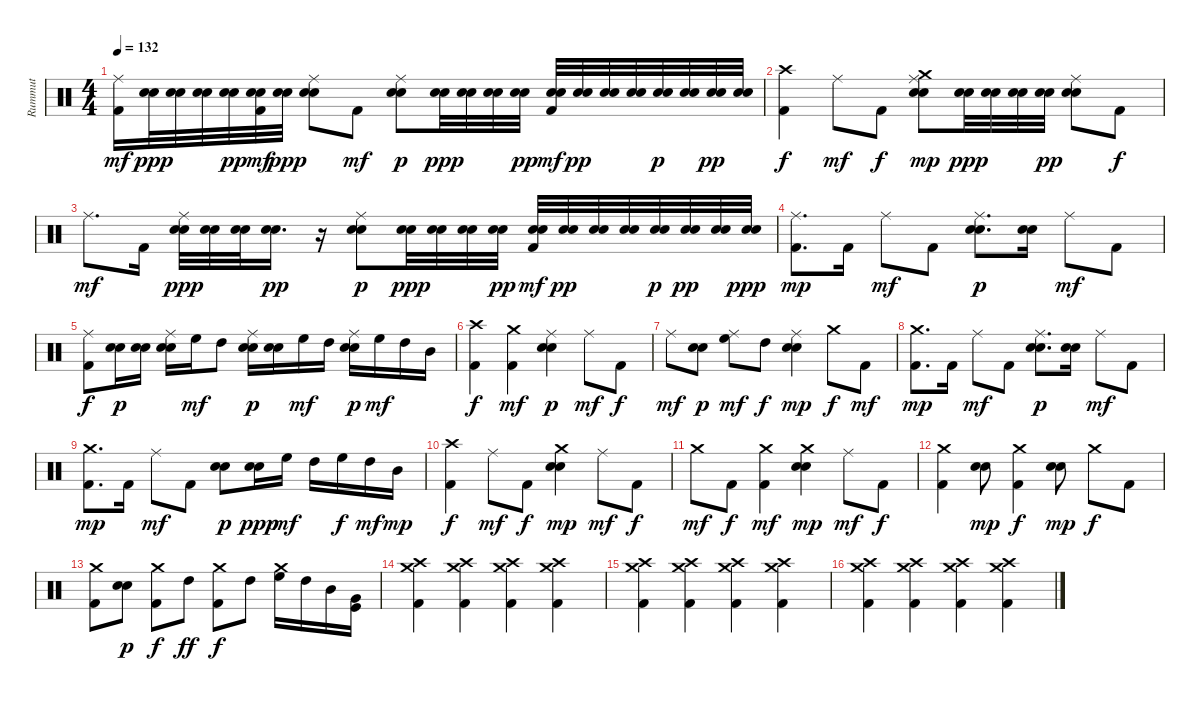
\track ("Rummut" "Rummut") {instrument percussion}
\staff {score}
\articulation defaults
\ts (4 4)
\tempo 132
\clef neutral
\ks c
("Ride (middle)" "Kick (hit) 2").16{dy mf} ("Electric Snare (hit)" "Snare (hit) 2").32{dy ppp} ("Electric Snare (hit)" "Snare (hit) 2").32 ("Electric Snare (hit)" "Snare (hit) 2").32 ("Electric Snare (hit)" "Snare (hit) 2").32{dy pp} ("Electric Snare (hit)" "Snare (hit) 2" "Kick (hit) 2").32{dy mf} ("Electric Snare (hit)" "Snare (hit) 2").32{dy ppp} ("Ride (middle)" "Electric Snare (hit)" "Snare (hit) 2").8 "Kick (hit) 2".8{dy mf} ("Ride (middle)" "Electric Snare (hit)" "Snare (hit) 2").8{dy p} ("Electric Snare (hit)" "Snare (hit) 2").32{dy ppp} ("Electric Snare (hit)" "Snare (hit) 2").32 ("Electric Snare (hit)" "Snare (hit) 2").32 ("Electric Snare (hit)" "Snare (hit) 2").32{dy pp} ("Electric Snare (hit)" "Snare (hit) 2" "Kick (hit) 2").32{dy mf} ("Electric Snare (hit)" "Snare (hit) 2").32{dy pp} ("Electric Snare (hit)" "Snare (hit) 2").32 ("Electric Snare (hit)" "Snare (hit) 2").32 ("Electric Snare (hit)" "Snare (hit) 2").32{dy p} ("Electric Snare (hit)" "Snare (hit) 2").32 ("Electric Snare (hit)" "Snare (hit) 2").32{dy pp} ("Electric Snare (hit)" "Snare (hit) 2").32 |
("Crash high (hit)" "Kick (hit) 2").4{dy f} "Ride (middle)".8{dy mf} "Kick (hit) 2".8{dy f} ("Crash medium (hit)" "Ride (middle)" "Electric Snare (hit)" "Snare (hit) 2").8{dy mp} ("Electric Snare (hit)" "Snare (hit) 2").32{dy ppp} ("Electric Snare (hit)" "Snare (hit) 2").32 ("Electric Snare (hit)" "Snare (hit) 2").32 ("Electric Snare (hit)" "Snare (hit) 2").32{dy pp} ("Ride (middle)" "Electric Snare (hit)" "Snare (hit) 2").8 "Kick (hit) 2".8{dy f} |
"Ride (middle)".8{d dy mf} "Kick (hit) 2".16 ("Ride (middle)" "Electric Snare (hit)" "Snare (hit) 2").32{dy ppp} ("Electric Snare (hit)" "Snare (hit) 2").32 ("Electric Snare (hit)" "Snare (hit) 2").32 ("Electric Snare (hit)" "Snare (hit) 2").16{d dy pp} r.16 ("Ride (middle)" "Electric Snare (hit)" "Snare (hit) 2").8{dy p} ("Electric Snare (hit)" "Snare (hit) 2").32{dy ppp} ("Electric Snare (hit)" "Snare (hit) 2").32 ("Electric Snare (hit)" "Snare (hit) 2").32 ("Electric Snare (hit)" "Snare (hit) 2").32{dy pp} ("Electric Snare (hit)" "Snare (hit) 2" "Kick (hit) 2").32{dy mf} ("Electric Snare (hit)" "Snare (hit) 2").32{dy pp} ("Electric Snare (hit)" "Snare (hit) 2").32 ("Electric Snare (hit)" "Snare (hit) 2").32 ("Electric Snare (hit)" "Snare (hit) 2").32{dy p} ("Electric Snare (hit)" "Snare (hit) 2").32{dy pp} ("Electric Snare (hit)" "Snare (hit) 2").32 ("Electric Snare (hit)" "Snare (hit) 2").32{dy ppp} |
("Ride (middle)" "Kick (hit) 2").8{d dy mp} "Kick (hit) 2".16 "Ride (middle)".8{dy mf} "Kick (hit) 2".8 ("Ride (middle)" "Electric Snare (hit)" "Snare (hit) 2").8{d dy p} ("Electric Snare (hit)" "Snare (hit) 2").16 "Ride (middle)".8{dy mf} "Kick (hit) 2".8 |
("Ride (middle)" "Kick (hit) 2").8{dy f} ("Electric Snare (hit)" "Snare (hit) 2").16{dy p} ("Electric Snare (hit)" "Snare (hit) 2").16 ("Ride (middle)" "Electric Snare (hit)" "Snare (hit) 2").16 "High Floor Tom (hit)".16{dy mf} "High Tom (hit)".8 ("Ride (middle)" "Electric Snare (hit)" "Snare (hit) 2").16{dy p} ("Electric Snare (hit)" "Snare (hit) 2").16 "High Floor Tom (hit)".16{dy mf} "High Tom (hit)".16 ("Ride (middle)" "Electric Snare (hit)" "Snare (hit) 2").16{dy p} "High Floor Tom (hit)".16{dy mf} "High Tom (hit)".16 "Mid Tom (hit)".16 |
("Crash high (hit)" "Kick (hit) 2").4{dy f} ("Crash medium (hit)" "Kick (hit) 2").4{dy mf} ("Ride (middle)" "Electric Snare (hit)" "Snare (hit) 2").4{dy p} "Ride (middle)".8{dy mf} "Kick (hit) 2".8{dy f} |
"Ride (middle)".8{dy mf} ("Electric Snare (hit)" "Snare (hit) 2").8{dy p} ("Ride (middle)" "High Floor Tom (hit)").8{dy mf} "High Tom (hit)".8{dy f} ("Ride (middle)" "Electric Snare (hit)" "Snare (hit) 2").4{dy mp} "Crash medium (hit)".8{dy f} "Kick (hit) 2".8{dy mf} |
("Crash medium (hit)" "Kick (hit) 2").8{d dy mp} "Kick (hit) 2".16 "Ride (middle)".8{dy mf} "Kick (hit) 2".8 ("Ride (middle)" "Electric Snare (hit)" "Snare (hit) 2").8{d dy p} ("Electric Snare (hit)" "Snare (hit) 2").16 "Ride (middle)".8{dy mf} "Kick (hit) 2".8 |
("Crash medium (hit)" "Kick (hit) 2").8{d dy mp} "Kick (hit) 2".16 "Ride (middle)".8{dy mf} "Kick (hit) 2".8 ("Electric Snare (hit)" "Snare (hit) 2").8{dy p} ("Electric Snare (hit)" "Snare (hit) 2").16{dy ppp} "High Floor Tom (hit)".16{dy mf} "High Tom (hit)".16 "High Floor Tom (hit)".16{dy f} "High Tom (hit)".16{dy mf} "Mid Tom (hit)".16{dy mp} |
("Crash high (hit)" "Kick (hit) 2").4{dy f} "Ride (middle)".8{dy mf} "Kick (hit) 2".8{dy f} ("Crash medium (hit)" "Electric Snare (hit)" "Snare (hit) 2").4{dy mp} "Ride (middle)".8{dy mf} "Kick (hit) 2".8{dy f} |
"Crash medium (hit)".8{dy mf} "Kick (hit) 2".8{dy f} ("Crash medium (hit)" "Kick (hit) 2").4{dy mf} ("Crash medium (hit)" "Electric Snare (hit)" "Snare (hit) 2").4{dy mp} "Ride (middle)".8{dy mf} "Kick (hit) 2".8{dy f} |
("Crash medium (hit)" "Kick (hit) 2").4 ("Electric Snare (hit)" "Snare (hit) 2").8{dy mp} ("Crash medium (hit)" "Kick (hit) 2").4{dy f} ("Electric Snare (hit)" "Snare (hit) 2").8{dy mp} "Crash medium (hit)".8{dy f} "Kick (hit) 2".8 |
("Crash medium (hit)" "Kick (hit) 2").8 ("Electric Snare (hit)" "Snare (hit) 2").8{dy p} ("Crash medium (hit)" "Kick (hit) 2").8{dy f} "High Tom (hit)".8{dy ff} ("Crash medium (hit)" "Kick (hit) 2").8{dy f} "High Tom (hit)".8 ("Crash medium (hit)" "High Floor Tom (hit)").16 "High Tom (hit)".16 "Mid Tom (hit)".16 ("Kick (hit)" "Very Low Tom (hit)").16 |
("Crash medium (hit)" "Crash high (hit)" "Kick (hit) 2").4 ("Crash medium (hit)" "Crash high (hit)" "Kick (hit) 2").4 ("Crash medium (hit)" "Crash high (hit)" "Kick (hit) 2").4 ("Crash medium (hit)" "Crash high (hit)" "Kick (hit) 2").4 |
("Crash medium (hit)" "Crash high (hit)" "Kick (hit) 2").4 ("Crash medium (hit)" "Crash high (hit)" "Kick (hit) 2").4 ("Crash medium (hit)" "Crash high (hit)" "Kick (hit) 2").4 ("Crash medium (hit)" "Crash high (hit)" "Kick (hit) 2").4 |
("Crash medium (hit)" "Crash high (hit)" "Kick (hit) 2").4 ("Crash medium (hit)" "Crash high (hit)" "Kick (hit) 2").4 ("Crash medium (hit)" "Crash high (hit)" "Kick (hit) 2").4 ("Crash medium (hit)" "Crash high (hit)" "Kick (hit) 2").4
